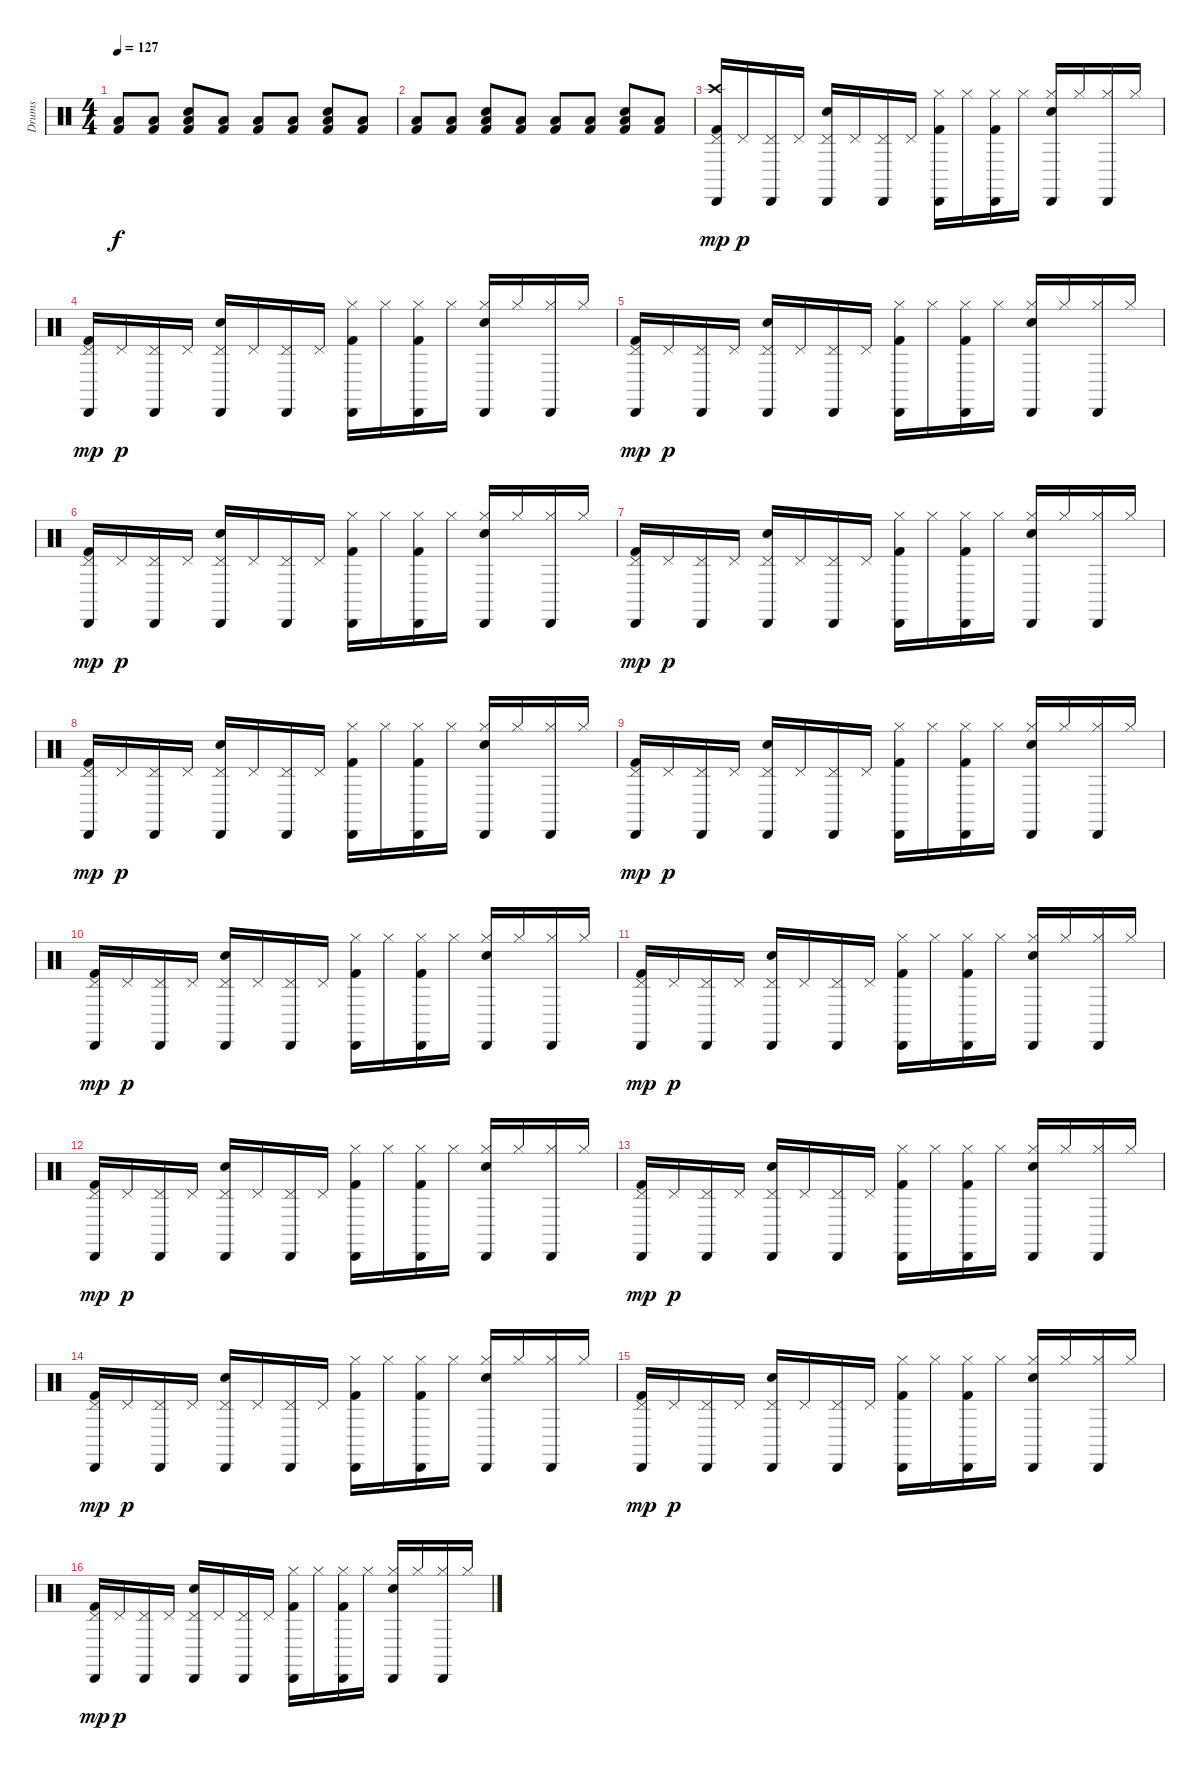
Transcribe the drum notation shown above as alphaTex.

\track ("Drums" "Drums") {instrument percussion}
\staff {score}
\articulation defaults
\ts (4 4)
\tempo 127
\clef neutral
\ks c
("Low Floor Tom (hit)" "Kick (hit) 2").8{dy f} ("Low Floor Tom (hit)" "Kick (hit) 2").8 ("Electric Snare (hit)" "Low Floor Tom (hit)" "Kick (hit) 2").8 ("Low Floor Tom (hit)" "Kick (hit) 2").8 ("Low Floor Tom (hit)" "Kick (hit) 2").8 ("Low Floor Tom (hit)" "Kick (hit) 2").8 ("Electric Snare (hit)" "Low Floor Tom (hit)" "Kick (hit) 2").8 ("Low Floor Tom (hit)" "Kick (hit) 2").8 |
("Low Floor Tom (hit)" "Kick (hit) 2").8 ("Low Floor Tom (hit)" "Kick (hit) 2").8 ("Electric Snare (hit)" "Low Floor Tom (hit)" "Kick (hit) 2").8 ("Low Floor Tom (hit)" "Kick (hit) 2").8 ("Low Floor Tom (hit)" "Kick (hit) 2").8 ("Low Floor Tom (hit)" "Kick (hit) 2").8 ("Electric Snare (hit)" "Low Floor Tom (hit)" "Kick (hit) 2").8 ("Low Floor Tom (hit)" "Kick (hit) 2").8 |
("Cabasa (hit)" "Crash high (hit)" "Pedal Hi-Hat (hit)" "Kick (hit) 2").16{dy mp} "Pedal Hi-Hat (hit)".16{dy p} ("Cabasa (hit)" "Pedal Hi-Hat (hit)").16 "Pedal Hi-Hat (hit)".16 ("Cabasa (hit)" "Pedal Hi-Hat (hit)" "Electric Snare (hit)").16 "Pedal Hi-Hat (hit)".16 ("Cabasa (hit)" "Pedal Hi-Hat (hit)").16 "Pedal Hi-Hat (hit)".16 ("Cabasa (hit)" "Hi-Hat (closed)" "Kick (hit) 2").16 "Hi-Hat (closed)".16 ("Cabasa (hit)" "Hi-Hat (closed)" "Kick (hit) 2").16 "Hi-Hat (closed)".16 ("Cabasa (hit)" "Hi-Hat (closed)" "Electric Snare (hit)").16 "Hi-Hat (closed)".16 ("Cabasa (hit)" "Hi-Hat (closed)").16 "Hi-Hat (closed)".16 |
("Cabasa (hit)" "Pedal Hi-Hat (hit)" "Kick (hit) 2").16{dy mp} "Pedal Hi-Hat (hit)".16{dy p} ("Cabasa (hit)" "Pedal Hi-Hat (hit)").16 "Pedal Hi-Hat (hit)".16 ("Cabasa (hit)" "Pedal Hi-Hat (hit)" "Electric Snare (hit)").16 "Pedal Hi-Hat (hit)".16 ("Cabasa (hit)" "Pedal Hi-Hat (hit)").16 "Pedal Hi-Hat (hit)".16 ("Cabasa (hit)" "Hi-Hat (closed)" "Kick (hit) 2").16 "Hi-Hat (closed)".16 ("Cabasa (hit)" "Hi-Hat (closed)" "Kick (hit) 2").16 "Hi-Hat (closed)".16 ("Cabasa (hit)" "Hi-Hat (closed)" "Electric Snare (hit)").16 "Hi-Hat (closed)".16 ("Cabasa (hit)" "Hi-Hat (closed)").16 "Hi-Hat (closed)".16 |
("Cabasa (hit)" "Pedal Hi-Hat (hit)" "Kick (hit) 2").16{dy mp} "Pedal Hi-Hat (hit)".16{dy p} ("Cabasa (hit)" "Pedal Hi-Hat (hit)").16 "Pedal Hi-Hat (hit)".16 ("Cabasa (hit)" "Pedal Hi-Hat (hit)" "Electric Snare (hit)").16 "Pedal Hi-Hat (hit)".16 ("Cabasa (hit)" "Pedal Hi-Hat (hit)").16 "Pedal Hi-Hat (hit)".16 ("Cabasa (hit)" "Hi-Hat (closed)" "Kick (hit) 2").16 "Hi-Hat (closed)".16 ("Cabasa (hit)" "Hi-Hat (closed)" "Kick (hit) 2").16 "Hi-Hat (closed)".16 ("Cabasa (hit)" "Hi-Hat (closed)" "Electric Snare (hit)").16 "Hi-Hat (closed)".16 ("Cabasa (hit)" "Hi-Hat (closed)").16 "Hi-Hat (closed)".16 |
("Cabasa (hit)" "Pedal Hi-Hat (hit)" "Kick (hit) 2").16{dy mp} "Pedal Hi-Hat (hit)".16{dy p} ("Cabasa (hit)" "Pedal Hi-Hat (hit)").16 "Pedal Hi-Hat (hit)".16 ("Cabasa (hit)" "Pedal Hi-Hat (hit)" "Electric Snare (hit)").16 "Pedal Hi-Hat (hit)".16 ("Cabasa (hit)" "Pedal Hi-Hat (hit)").16 "Pedal Hi-Hat (hit)".16 ("Cabasa (hit)" "Hi-Hat (closed)" "Kick (hit) 2").16 "Hi-Hat (closed)".16 ("Cabasa (hit)" "Hi-Hat (closed)" "Kick (hit) 2").16 "Hi-Hat (closed)".16 ("Cabasa (hit)" "Hi-Hat (closed)" "Electric Snare (hit)").16 "Hi-Hat (closed)".16 ("Cabasa (hit)" "Hi-Hat (closed)").16 "Hi-Hat (closed)".16 |
("Cabasa (hit)" "Pedal Hi-Hat (hit)" "Kick (hit) 2").16{dy mp} "Pedal Hi-Hat (hit)".16{dy p} ("Cabasa (hit)" "Pedal Hi-Hat (hit)").16 "Pedal Hi-Hat (hit)".16 ("Cabasa (hit)" "Pedal Hi-Hat (hit)" "Electric Snare (hit)").16 "Pedal Hi-Hat (hit)".16 ("Cabasa (hit)" "Pedal Hi-Hat (hit)").16 "Pedal Hi-Hat (hit)".16 ("Cabasa (hit)" "Hi-Hat (closed)" "Kick (hit) 2").16 "Hi-Hat (closed)".16 ("Cabasa (hit)" "Hi-Hat (closed)" "Kick (hit) 2").16 "Hi-Hat (closed)".16 ("Cabasa (hit)" "Hi-Hat (closed)" "Electric Snare (hit)").16 "Hi-Hat (closed)".16 ("Cabasa (hit)" "Hi-Hat (closed)").16 "Hi-Hat (closed)".16 |
("Cabasa (hit)" "Pedal Hi-Hat (hit)" "Kick (hit) 2").16{dy mp} "Pedal Hi-Hat (hit)".16{dy p} ("Cabasa (hit)" "Pedal Hi-Hat (hit)").16 "Pedal Hi-Hat (hit)".16 ("Cabasa (hit)" "Pedal Hi-Hat (hit)" "Electric Snare (hit)").16 "Pedal Hi-Hat (hit)".16 ("Cabasa (hit)" "Pedal Hi-Hat (hit)").16 "Pedal Hi-Hat (hit)".16 ("Cabasa (hit)" "Hi-Hat (closed)" "Kick (hit) 2").16 "Hi-Hat (closed)".16 ("Cabasa (hit)" "Hi-Hat (closed)" "Kick (hit) 2").16 "Hi-Hat (closed)".16 ("Cabasa (hit)" "Hi-Hat (closed)" "Electric Snare (hit)").16 "Hi-Hat (closed)".16 ("Cabasa (hit)" "Hi-Hat (closed)").16 "Hi-Hat (closed)".16 |
("Cabasa (hit)" "Pedal Hi-Hat (hit)" "Kick (hit) 2").16{dy mp} "Pedal Hi-Hat (hit)".16{dy p} ("Cabasa (hit)" "Pedal Hi-Hat (hit)").16 "Pedal Hi-Hat (hit)".16 ("Cabasa (hit)" "Pedal Hi-Hat (hit)" "Electric Snare (hit)").16 "Pedal Hi-Hat (hit)".16 ("Cabasa (hit)" "Pedal Hi-Hat (hit)").16 "Pedal Hi-Hat (hit)".16 ("Cabasa (hit)" "Hi-Hat (closed)" "Kick (hit) 2").16 "Hi-Hat (closed)".16 ("Cabasa (hit)" "Hi-Hat (closed)" "Kick (hit) 2").16 "Hi-Hat (closed)".16 ("Cabasa (hit)" "Hi-Hat (closed)" "Electric Snare (hit)").16 "Hi-Hat (closed)".16 ("Cabasa (hit)" "Hi-Hat (closed)").16 "Hi-Hat (closed)".16 |
("Cabasa (hit)" "Pedal Hi-Hat (hit)" "Kick (hit) 2").16{dy mp} "Pedal Hi-Hat (hit)".16{dy p} ("Cabasa (hit)" "Pedal Hi-Hat (hit)").16 "Pedal Hi-Hat (hit)".16 ("Cabasa (hit)" "Pedal Hi-Hat (hit)" "Electric Snare (hit)").16 "Pedal Hi-Hat (hit)".16 ("Cabasa (hit)" "Pedal Hi-Hat (hit)").16 "Pedal Hi-Hat (hit)".16 ("Cabasa (hit)" "Hi-Hat (closed)" "Kick (hit) 2").16 "Hi-Hat (closed)".16 ("Cabasa (hit)" "Hi-Hat (closed)" "Kick (hit) 2").16 "Hi-Hat (closed)".16 ("Cabasa (hit)" "Hi-Hat (closed)" "Electric Snare (hit)").16 "Hi-Hat (closed)".16 ("Cabasa (hit)" "Hi-Hat (closed)").16 "Hi-Hat (closed)".16 |
("Cabasa (hit)" "Pedal Hi-Hat (hit)" "Kick (hit) 2").16{dy mp} "Pedal Hi-Hat (hit)".16{dy p} ("Cabasa (hit)" "Pedal Hi-Hat (hit)").16 "Pedal Hi-Hat (hit)".16 ("Cabasa (hit)" "Pedal Hi-Hat (hit)" "Electric Snare (hit)").16 "Pedal Hi-Hat (hit)".16 ("Cabasa (hit)" "Pedal Hi-Hat (hit)").16 "Pedal Hi-Hat (hit)".16 ("Cabasa (hit)" "Hi-Hat (closed)" "Kick (hit) 2").16 "Hi-Hat (closed)".16 ("Cabasa (hit)" "Hi-Hat (closed)" "Kick (hit) 2").16 "Hi-Hat (closed)".16 ("Cabasa (hit)" "Hi-Hat (closed)" "Electric Snare (hit)").16 "Hi-Hat (closed)".16 ("Cabasa (hit)" "Hi-Hat (closed)").16 "Hi-Hat (closed)".16 |
("Cabasa (hit)" "Pedal Hi-Hat (hit)" "Kick (hit) 2").16{dy mp} "Pedal Hi-Hat (hit)".16{dy p} ("Cabasa (hit)" "Pedal Hi-Hat (hit)").16 "Pedal Hi-Hat (hit)".16 ("Cabasa (hit)" "Pedal Hi-Hat (hit)" "Electric Snare (hit)").16 "Pedal Hi-Hat (hit)".16 ("Cabasa (hit)" "Pedal Hi-Hat (hit)").16 "Pedal Hi-Hat (hit)".16 ("Cabasa (hit)" "Hi-Hat (closed)" "Kick (hit) 2").16 "Hi-Hat (closed)".16 ("Cabasa (hit)" "Hi-Hat (closed)" "Kick (hit) 2").16 "Hi-Hat (closed)".16 ("Cabasa (hit)" "Hi-Hat (closed)" "Electric Snare (hit)").16 "Hi-Hat (closed)".16 ("Cabasa (hit)" "Hi-Hat (closed)").16 "Hi-Hat (closed)".16 |
("Cabasa (hit)" "Pedal Hi-Hat (hit)" "Kick (hit) 2").16{dy mp} "Pedal Hi-Hat (hit)".16{dy p} ("Cabasa (hit)" "Pedal Hi-Hat (hit)").16 "Pedal Hi-Hat (hit)".16 ("Cabasa (hit)" "Pedal Hi-Hat (hit)" "Electric Snare (hit)").16 "Pedal Hi-Hat (hit)".16 ("Cabasa (hit)" "Pedal Hi-Hat (hit)").16 "Pedal Hi-Hat (hit)".16 ("Cabasa (hit)" "Hi-Hat (closed)" "Kick (hit) 2").16 "Hi-Hat (closed)".16 ("Cabasa (hit)" "Hi-Hat (closed)" "Kick (hit) 2").16 "Hi-Hat (closed)".16 ("Cabasa (hit)" "Hi-Hat (closed)" "Electric Snare (hit)").16 "Hi-Hat (closed)".16 ("Cabasa (hit)" "Hi-Hat (closed)").16 "Hi-Hat (closed)".16 |
("Cabasa (hit)" "Pedal Hi-Hat (hit)" "Kick (hit) 2").16{dy mp} "Pedal Hi-Hat (hit)".16{dy p} ("Cabasa (hit)" "Pedal Hi-Hat (hit)").16 "Pedal Hi-Hat (hit)".16 ("Cabasa (hit)" "Pedal Hi-Hat (hit)" "Electric Snare (hit)").16 "Pedal Hi-Hat (hit)".16 ("Cabasa (hit)" "Pedal Hi-Hat (hit)").16 "Pedal Hi-Hat (hit)".16 ("Cabasa (hit)" "Hi-Hat (closed)" "Kick (hit) 2").16 "Hi-Hat (closed)".16 ("Cabasa (hit)" "Hi-Hat (closed)" "Kick (hit) 2").16 "Hi-Hat (closed)".16 ("Cabasa (hit)" "Hi-Hat (closed)" "Electric Snare (hit)").16 "Hi-Hat (closed)".16 ("Cabasa (hit)" "Hi-Hat (closed)").16 "Hi-Hat (closed)".16 |
("Cabasa (hit)" "Pedal Hi-Hat (hit)" "Kick (hit) 2").16{dy mp} "Pedal Hi-Hat (hit)".16{dy p} ("Cabasa (hit)" "Pedal Hi-Hat (hit)").16 "Pedal Hi-Hat (hit)".16 ("Cabasa (hit)" "Pedal Hi-Hat (hit)" "Electric Snare (hit)").16 "Pedal Hi-Hat (hit)".16 ("Cabasa (hit)" "Pedal Hi-Hat (hit)").16 "Pedal Hi-Hat (hit)".16 ("Cabasa (hit)" "Hi-Hat (closed)" "Kick (hit) 2").16 "Hi-Hat (closed)".16 ("Cabasa (hit)" "Hi-Hat (closed)" "Kick (hit) 2").16 "Hi-Hat (closed)".16 ("Cabasa (hit)" "Hi-Hat (closed)" "Electric Snare (hit)").16 "Hi-Hat (closed)".16 ("Cabasa (hit)" "Hi-Hat (closed)").16 "Hi-Hat (closed)".16 |
("Cabasa (hit)" "Pedal Hi-Hat (hit)" "Kick (hit) 2").16{dy mp} "Pedal Hi-Hat (hit)".16{dy p} ("Cabasa (hit)" "Pedal Hi-Hat (hit)").16 "Pedal Hi-Hat (hit)".16 ("Cabasa (hit)" "Pedal Hi-Hat (hit)" "Electric Snare (hit)").16 "Pedal Hi-Hat (hit)".16 ("Cabasa (hit)" "Pedal Hi-Hat (hit)").16 "Pedal Hi-Hat (hit)".16 ("Cabasa (hit)" "Hi-Hat (closed)" "Kick (hit) 2").16 "Hi-Hat (closed)".16 ("Cabasa (hit)" "Hi-Hat (closed)" "Kick (hit) 2").16 "Hi-Hat (closed)".16 ("Cabasa (hit)" "Hi-Hat (closed)" "Electric Snare (hit)").16 "Hi-Hat (closed)".16 ("Cabasa (hit)" "Hi-Hat (closed)").16 "Hi-Hat (closed)".16
